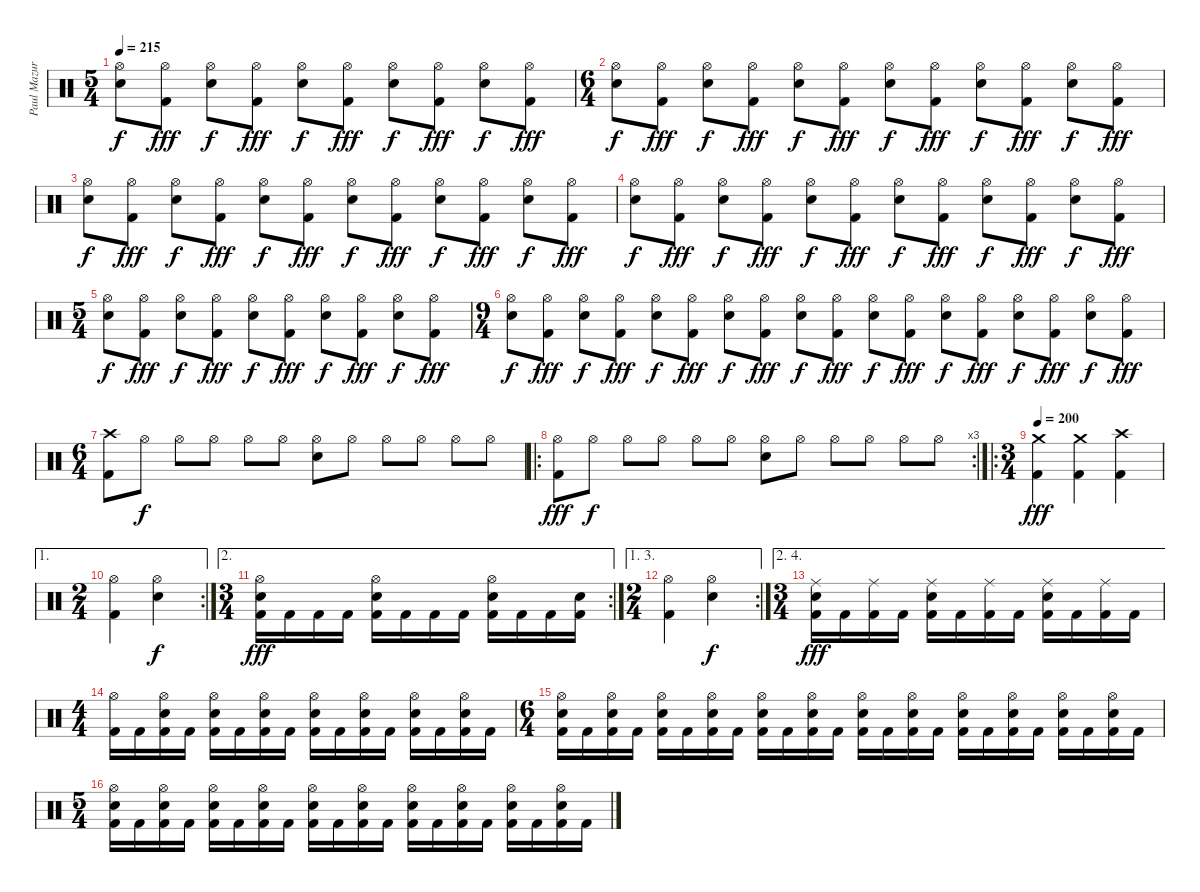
\track ("Paul Mazurkiewicz" "Paul Mazur") {instrument percussion}
\staff {score}
\articulation defaults
\ts (5 4)
\tempo 215
\clef neutral
\ks c
("Hi-Hat (open)" "Electric Snare (hit)").8{dy f} ("Hi-Hat (open)" "Kick (hit) 2").8{dy fff} ("Hi-Hat (open)" "Electric Snare (hit)").8{dy f} ("Hi-Hat (open)" "Kick (hit) 2").8{dy fff} ("Hi-Hat (open)" "Electric Snare (hit)").8{dy f} ("Hi-Hat (open)" "Kick (hit) 2").8{dy fff} ("Hi-Hat (open)" "Electric Snare (hit)").8{dy f} ("Hi-Hat (open)" "Kick (hit) 2").8{dy fff} ("Hi-Hat (open)" "Electric Snare (hit)").8{dy f} ("Hi-Hat (open)" "Kick (hit) 2").8{dy fff} |
\ts (6 4)
("Hi-Hat (open)" "Electric Snare (hit)").8{dy f} ("Hi-Hat (open)" "Kick (hit) 2").8{dy fff} ("Hi-Hat (open)" "Electric Snare (hit)").8{dy f} ("Hi-Hat (open)" "Kick (hit) 2").8{dy fff} ("Hi-Hat (open)" "Electric Snare (hit)").8{dy f} ("Hi-Hat (open)" "Kick (hit) 2").8{dy fff} ("Hi-Hat (open)" "Electric Snare (hit)").8{dy f} ("Hi-Hat (open)" "Kick (hit) 2").8{dy fff} ("Hi-Hat (open)" "Electric Snare (hit)").8{dy f} ("Hi-Hat (open)" "Kick (hit) 2").8{dy fff} ("Hi-Hat (open)" "Electric Snare (hit)").8{dy f} ("Hi-Hat (open)" "Kick (hit) 2").8{dy fff} |
("Hi-Hat (open)" "Electric Snare (hit)").8{dy f} ("Hi-Hat (open)" "Kick (hit) 2").8{dy fff} ("Hi-Hat (open)" "Electric Snare (hit)").8{dy f} ("Hi-Hat (open)" "Kick (hit) 2").8{dy fff} ("Hi-Hat (open)" "Electric Snare (hit)").8{dy f} ("Hi-Hat (open)" "Kick (hit) 2").8{dy fff} ("Hi-Hat (open)" "Electric Snare (hit)").8{dy f} ("Hi-Hat (open)" "Kick (hit) 2").8{dy fff} ("Hi-Hat (open)" "Electric Snare (hit)").8{dy f} ("Hi-Hat (open)" "Kick (hit) 2").8{dy fff} ("Hi-Hat (open)" "Electric Snare (hit)").8{dy f} ("Hi-Hat (open)" "Kick (hit) 2").8{dy fff} |
("Hi-Hat (open)" "Electric Snare (hit)").8{dy f} ("Hi-Hat (open)" "Kick (hit) 2").8{dy fff} ("Hi-Hat (open)" "Electric Snare (hit)").8{dy f} ("Hi-Hat (open)" "Kick (hit) 2").8{dy fff} ("Hi-Hat (open)" "Electric Snare (hit)").8{dy f} ("Hi-Hat (open)" "Kick (hit) 2").8{dy fff} ("Hi-Hat (open)" "Electric Snare (hit)").8{dy f} ("Hi-Hat (open)" "Kick (hit) 2").8{dy fff} ("Hi-Hat (open)" "Electric Snare (hit)").8{dy f} ("Hi-Hat (open)" "Kick (hit) 2").8{dy fff} ("Hi-Hat (open)" "Electric Snare (hit)").8{dy f} ("Hi-Hat (open)" "Kick (hit) 2").8{dy fff} |
\ts (5 4)
("Hi-Hat (open)" "Electric Snare (hit)").8{dy f} ("Hi-Hat (open)" "Kick (hit) 2").8{dy fff} ("Hi-Hat (open)" "Electric Snare (hit)").8{dy f} ("Hi-Hat (open)" "Kick (hit) 2").8{dy fff} ("Hi-Hat (open)" "Electric Snare (hit)").8{dy f} ("Hi-Hat (open)" "Kick (hit) 2").8{dy fff} ("Hi-Hat (open)" "Electric Snare (hit)").8{dy f} ("Hi-Hat (open)" "Kick (hit) 2").8{dy fff} ("Hi-Hat (open)" "Electric Snare (hit)").8{dy f} ("Hi-Hat (open)" "Kick (hit) 2").8{dy fff} |
\ts (9 4)
("Hi-Hat (open)" "Electric Snare (hit)").8{dy f} ("Hi-Hat (open)" "Kick (hit) 2").8{dy fff} ("Hi-Hat (open)" "Electric Snare (hit)").8{dy f} ("Hi-Hat (open)" "Kick (hit) 2").8{dy fff} ("Hi-Hat (open)" "Electric Snare (hit)").8{dy f} ("Hi-Hat (open)" "Kick (hit) 2").8{dy fff} ("Hi-Hat (open)" "Electric Snare (hit)").8{dy f} ("Hi-Hat (open)" "Kick (hit) 2").8{dy fff} ("Hi-Hat (open)" "Electric Snare (hit)").8{dy f} ("Hi-Hat (open)" "Kick (hit) 2").8{dy fff} ("Hi-Hat (open)" "Electric Snare (hit)").8{dy f} ("Hi-Hat (open)" "Kick (hit) 2").8{dy fff} ("Hi-Hat (open)" "Electric Snare (hit)").8{dy f} ("Hi-Hat (open)" "Kick (hit) 2").8{dy fff} ("Hi-Hat (open)" "Electric Snare (hit)").8{dy f} ("Hi-Hat (open)" "Kick (hit) 2").8{dy fff} ("Hi-Hat (open)" "Electric Snare (hit)").8{dy f} ("Hi-Hat (open)" "Kick (hit) 2").8{dy fff} |
\ts (6 4)
("Crash high (hit)" "Kick (hit) 2").8 "Hi-Hat (open)".8{dy f} "Hi-Hat (open)".8 "Hi-Hat (open)".8 "Hi-Hat (open)".8 "Hi-Hat (open)".8 ("Hi-Hat (open)" "Electric Snare (hit)").8 "Hi-Hat (open)".8 "Hi-Hat (open)".8 "Hi-Hat (open)".8 "Hi-Hat (open)".8 "Hi-Hat (open)".8 |
\ro
\rc 3
("Hi-Hat (open)" "Kick (hit) 2").8{dy fff} "Hi-Hat (open)".8{dy f} "Hi-Hat (open)".8 "Hi-Hat (open)".8 "Hi-Hat (open)".8 "Hi-Hat (open)".8 ("Hi-Hat (open)" "Electric Snare (hit)").8 "Hi-Hat (open)".8 "Hi-Hat (open)".8 "Hi-Hat (open)".8 "Hi-Hat (open)".8 "Hi-Hat (open)".8 |
\ro
\ts (3 4)
\tempo 200
("Crash medium (hit)" "Kick (hit) 2").4{dy fff} ("Crash medium (hit)" "Kick (hit) 2").4 ("Crash high (hit)" "Kick (hit) 2").4 |
\ae 1
\rc 2
\ts (2 4)
("Hi-Hat (open)" "Kick (hit) 2").4 ("Hi-Hat (open)" "Electric Snare (hit)").4{dy f} |
\ae 2
\rc 2
\ts (3 4)
("Hi-Hat (open)" "Electric Snare (hit)" "Kick (hit) 2").16{dy fff} "Kick (hit) 2".16 "Kick (hit) 2".16 "Kick (hit) 2".16 ("Hi-Hat (open)" "Electric Snare (hit)" "Kick (hit) 2").16 "Kick (hit) 2".16 "Kick (hit) 2".16 "Kick (hit) 2".16 ("Hi-Hat (open)" "Electric Snare (hit)" "Kick (hit) 2").16 "Kick (hit) 2".16 "Kick (hit) 2".16 ("Electric Snare (hit)" "Kick (hit) 2").16 |
\ae (1 3)
\rc 2
\ts (2 4)
("Hi-Hat (open)" "Kick (hit) 2").4 ("Hi-Hat (open)" "Electric Snare (hit)").4{dy f} |
\ae (2 4)
\ts (3 4)
("Ride (middle)" "Electric Snare (hit)" "Kick (hit) 2").16{dy fff} "Kick (hit) 2".16 ("Ride (middle)" "Kick (hit) 2").16 "Kick (hit) 2".16 ("Ride (middle)" "Electric Snare (hit)" "Kick (hit) 2").16 "Kick (hit) 2".16 ("Ride (middle)" "Kick (hit) 2").16 "Kick (hit) 2".16 ("Ride (middle)" "Electric Snare (hit)" "Kick (hit) 2").16 "Kick (hit) 2".16 ("Ride (middle)" "Kick (hit) 2").16 "Kick (hit) 2".16 |
\ts (4 4)
("Hi-Hat (open)" "Kick (hit) 2").16 "Kick (hit) 2".16 ("Hi-Hat (open)" "Electric Snare (hit)" "Kick (hit) 2").16 "Kick (hit) 2".16 ("Hi-Hat (open)" "Electric Snare (hit)" "Kick (hit) 2").16 "Kick (hit) 2".16 ("Hi-Hat (open)" "Electric Snare (hit)" "Kick (hit) 2").16 "Kick (hit) 2".16 ("Hi-Hat (open)" "Electric Snare (hit)" "Kick (hit) 2").16 "Kick (hit) 2".16 ("Hi-Hat (open)" "Electric Snare (hit)" "Kick (hit) 2").16 "Kick (hit) 2".16 ("Hi-Hat (open)" "Electric Snare (hit)" "Kick (hit) 2").16 "Kick (hit) 2".16 ("Hi-Hat (open)" "Electric Snare (hit)" "Kick (hit) 2").16 "Kick (hit) 2".16 |
\ts (6 4)
("Hi-Hat (open)" "Electric Snare (hit)" "Kick (hit) 2").16 "Kick (hit) 2".16 ("Hi-Hat (open)" "Electric Snare (hit)" "Kick (hit) 2").16 "Kick (hit) 2".16 ("Hi-Hat (open)" "Electric Snare (hit)" "Kick (hit) 2").16 "Kick (hit) 2".16 ("Hi-Hat (open)" "Electric Snare (hit)" "Kick (hit) 2").16 "Kick (hit) 2".16 ("Hi-Hat (open)" "Electric Snare (hit)" "Kick (hit) 2").16 "Kick (hit) 2".16 ("Hi-Hat (open)" "Electric Snare (hit)" "Kick (hit) 2").16 "Kick (hit) 2".16 ("Hi-Hat (open)" "Electric Snare (hit)" "Kick (hit) 2").16 "Kick (hit) 2".16 ("Hi-Hat (open)" "Electric Snare (hit)" "Kick (hit) 2").16 "Kick (hit) 2".16 ("Hi-Hat (open)" "Electric Snare (hit)" "Kick (hit) 2").16 "Kick (hit) 2".16 ("Hi-Hat (open)" "Electric Snare (hit)" "Kick (hit) 2").16 "Kick (hit) 2".16 ("Hi-Hat (open)" "Electric Snare (hit)" "Kick (hit) 2").16 "Kick (hit) 2".16 ("Hi-Hat (open)" "Electric Snare (hit)" "Kick (hit) 2").16 "Kick (hit) 2".16 |
\ts (5 4)
("Hi-Hat (open)" "Electric Snare (hit)" "Kick (hit) 2").16 "Kick (hit) 2".16 ("Hi-Hat (open)" "Electric Snare (hit)" "Kick (hit) 2").16 "Kick (hit) 2".16 ("Hi-Hat (open)" "Electric Snare (hit)" "Kick (hit) 2").16 "Kick (hit) 2".16 ("Hi-Hat (open)" "Electric Snare (hit)" "Kick (hit) 2").16 "Kick (hit) 2".16 ("Hi-Hat (open)" "Electric Snare (hit)" "Kick (hit) 2").16 "Kick (hit) 2".16 ("Hi-Hat (open)" "Electric Snare (hit)" "Kick (hit) 2").16 "Kick (hit) 2".16 ("Hi-Hat (open)" "Electric Snare (hit)" "Kick (hit) 2").16 "Kick (hit) 2".16 ("Hi-Hat (open)" "Electric Snare (hit)" "Kick (hit) 2").16 "Kick (hit) 2".16 ("Hi-Hat (open)" "Electric Snare (hit)" "Kick (hit) 2").16 "Kick (hit) 2".16 ("Hi-Hat (open)" "Electric Snare (hit)" "Kick (hit) 2").16 "Kick (hit) 2".16
